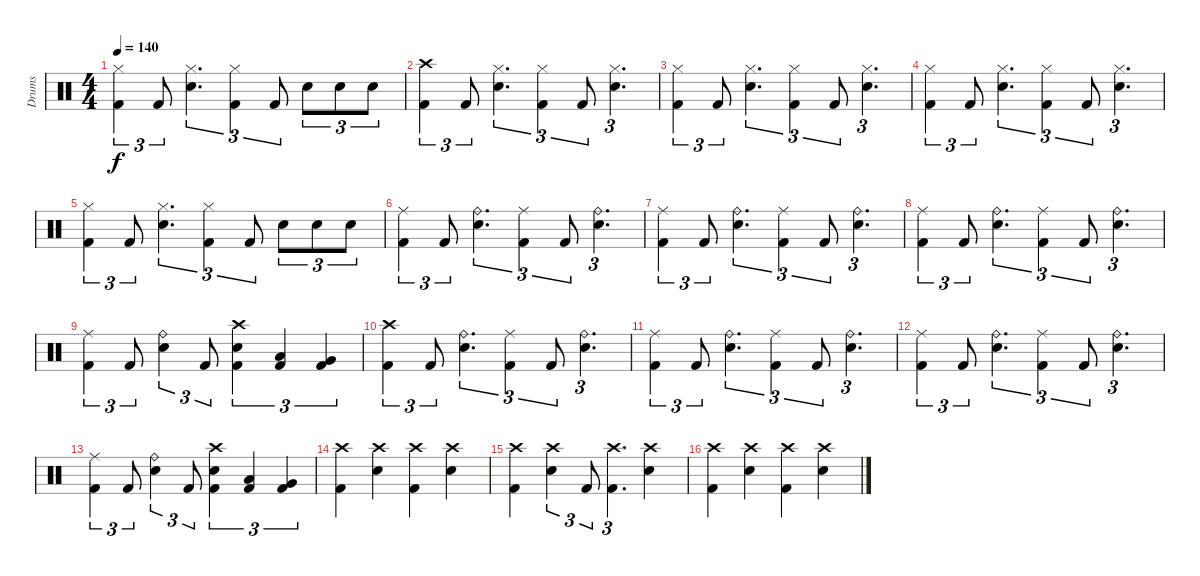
\track ("Drums" "Drums") {instrument percussion}
\staff {score}
\articulation defaults
\ts (4 4)
\tempo 140
\clef neutral
\ks c
("Hi-Hat (closed)" "Kick (hit) 2").4{tu (3 2) dy f} "Kick (hit) 2".8{tu (3 2)} ("Hi-Hat (closed)" "Snare (hit) 2").4{d tu (3 2)} ("Hi-Hat (closed)" "Kick (hit) 2").4{tu (3 2)} "Kick (hit) 2".8{tu (3 2)} "Snare (hit) 2".8{tu (3 2)} "Snare (hit) 2".8{tu (3 2)} "Snare (hit) 2".8{tu (3 2)} |
("Crash high (hit)" "Kick (hit) 2").4{tu (3 2)} "Kick (hit) 2".8{tu (3 2)} ("Hi-Hat (closed)" "Snare (hit) 2").4{d tu (3 2)} ("Hi-Hat (closed)" "Kick (hit) 2").4{tu (3 2)} "Kick (hit) 2".8{tu (3 2)} ("Hi-Hat (closed)" "Snare (hit) 2").4{d tu (3 2)} |
("Hi-Hat (closed)" "Kick (hit) 2").4{tu (3 2)} "Kick (hit) 2".8{tu (3 2)} ("Hi-Hat (closed)" "Snare (hit) 2").4{d tu (3 2)} ("Hi-Hat (closed)" "Kick (hit) 2").4{tu (3 2)} "Kick (hit) 2".8{tu (3 2)} ("Hi-Hat (closed)" "Snare (hit) 2").4{d tu (3 2)} |
("Hi-Hat (closed)" "Kick (hit) 2").4{tu (3 2)} "Kick (hit) 2".8{tu (3 2)} ("Hi-Hat (closed)" "Snare (hit) 2").4{d tu (3 2)} ("Hi-Hat (closed)" "Kick (hit) 2").4{tu (3 2)} "Kick (hit) 2".8{tu (3 2)} ("Hi-Hat (closed)" "Snare (hit) 2").4{d tu (3 2)} |
("Hi-Hat (closed)" "Kick (hit) 2").4{tu (3 2)} "Kick (hit) 2".8{tu (3 2)} ("Hi-Hat (closed)" "Snare (hit) 2").4{d tu (3 2)} ("Hi-Hat (closed)" "Kick (hit) 2").4{tu (3 2)} "Kick (hit) 2".8{tu (3 2)} "Snare (hit) 2".8{tu (3 2)} "Snare (hit) 2".8{tu (3 2)} "Snare (hit) 2".8{tu (3 2)} |
("Ride (middle)" "Kick (hit) 2").4{tu (3 2)} "Kick (hit) 2".8{tu (3 2)} ("Ride (bell)" "Snare (hit) 2").4{d tu (3 2)} ("Ride (middle)" "Kick (hit) 2").4{tu (3 2)} "Kick (hit) 2".8{tu (3 2)} ("Ride (bell)" "Snare (hit) 2").4{d tu (3 2)} |
("Ride (middle)" "Kick (hit) 2").4{tu (3 2)} "Kick (hit) 2".8{tu (3 2)} ("Ride (bell)" "Snare (hit) 2").4{d tu (3 2)} ("Ride (middle)" "Kick (hit) 2").4{tu (3 2)} "Kick (hit) 2".8{tu (3 2)} ("Ride (bell)" "Snare (hit) 2").4{d tu (3 2)} |
("Ride (middle)" "Kick (hit) 2").4{tu (3 2)} "Kick (hit) 2".8{tu (3 2)} ("Ride (bell)" "Snare (hit) 2").4{d tu (3 2)} ("Ride (middle)" "Kick (hit) 2").4{tu (3 2)} "Kick (hit) 2".8{tu (3 2)} ("Ride (bell)" "Snare (hit) 2").4{d tu (3 2)} |
("Ride (middle)" "Kick (hit) 2").4{tu (3 2)} "Kick (hit) 2".8{tu (3 2)} ("Ride (bell)" "Snare (hit) 2").4{tu (3 2)} "Kick (hit) 2".8{tu (3 2)} ("Crash high (hit)" "Kick (hit) 2" "Snare (hit) 2").4{tu (3 2)} ("Kick (hit) 2" "Low Tom (hit)").4{tu (3 2)} ("Kick (hit) 2" "Very Low Tom (hit)").4{tu (3 2)} |
("Crash high (hit)" "Kick (hit) 2").4{tu (3 2)} "Kick (hit) 2".8{tu (3 2)} ("Ride (bell)" "Snare (hit) 2").4{d tu (3 2)} ("Ride (middle)" "Kick (hit) 2").4{tu (3 2)} "Kick (hit) 2".8{tu (3 2)} ("Ride (bell)" "Snare (hit) 2").4{d tu (3 2)} |
("Ride (middle)" "Kick (hit) 2").4{tu (3 2)} "Kick (hit) 2".8{tu (3 2)} ("Ride (bell)" "Snare (hit) 2").4{d tu (3 2)} ("Ride (middle)" "Kick (hit) 2").4{tu (3 2)} "Kick (hit) 2".8{tu (3 2)} ("Ride (bell)" "Snare (hit) 2").4{d tu (3 2)} |
("Ride (middle)" "Kick (hit) 2").4{tu (3 2)} "Kick (hit) 2".8{tu (3 2)} ("Ride (bell)" "Snare (hit) 2").4{d tu (3 2)} ("Ride (middle)" "Kick (hit) 2").4{tu (3 2)} "Kick (hit) 2".8{tu (3 2)} ("Ride (bell)" "Snare (hit) 2").4{d tu (3 2)} |
("Ride (middle)" "Kick (hit) 2").4{tu (3 2)} "Kick (hit) 2".8{tu (3 2)} ("Ride (bell)" "Snare (hit) 2").4{tu (3 2)} "Kick (hit) 2".8{tu (3 2)} ("Crash high (hit)" "Kick (hit) 2" "Snare (hit) 2").4{tu (3 2)} ("Kick (hit) 2" "Low Tom (hit)").4{tu (3 2)} ("Kick (hit) 2" "Very Low Tom (hit)").4{tu (3 2)} |
("Crash high (hit)" "Kick (hit) 2").4 ("Crash high (hit)" "Snare (hit) 2").4 ("Crash high (hit)" "Kick (hit) 2").4 ("Crash high (hit)" "Snare (hit) 2").4 |
("Crash high (hit)" "Kick (hit) 2").4 ("Crash high (hit)" "Snare (hit) 2").4{tu (3 2)} "Kick (hit) 2".8{tu (3 2)} ("Crash high (hit)" "Kick (hit) 2").4{d tu (3 2)} ("Crash high (hit)" "Snare (hit) 2").4 |
("Crash high (hit)" "Kick (hit) 2").4 ("Crash high (hit)" "Snare (hit) 2").4 ("Crash high (hit)" "Kick (hit) 2").4 ("Crash high (hit)" "Snare (hit) 2").4
